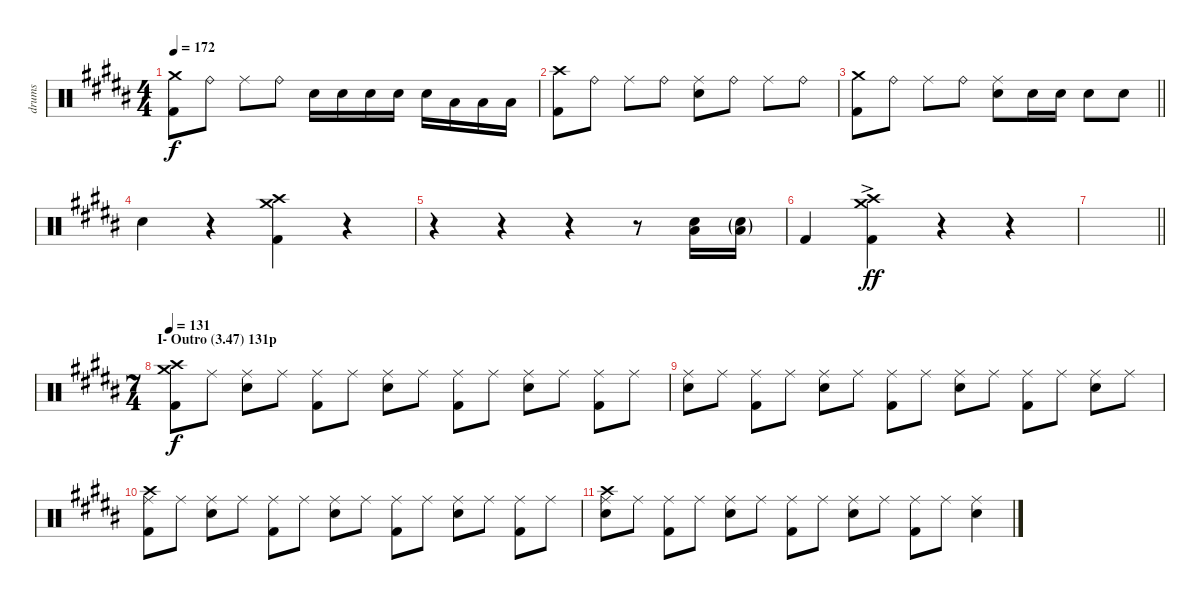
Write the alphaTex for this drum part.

\track ("drums" "drums") {instrument percussion}
\staff {score}
\articulation defaults
\ts (4 4)
\tempo 172
\clef neutral
\ks g#minor
("Crash medium (hit)" "Kick (hit) 2").8{dy f} "Ride (bell)".8 "Ride (middle)".8 "Ride (bell)".8 "Electric Snare (hit)".16 "Electric Snare (hit)".16 "Electric Snare (hit)".16 "Electric Snare (hit)".16 "Electric Snare (hit)".16 "Low Tom (hit)".16 "Low Tom (hit)".16 "Low Tom (hit)".16 |
\ks b
("Crash high (hit)" "Kick (hit) 2").8 "Ride (bell)".8 "Ride (middle)".8 "Ride (bell)".8 ("Ride (middle)" "Electric Snare (hit)").8 "Ride (bell)".8 "Ride (middle)".8 "Ride (bell)".8 |
\barLineRight lightlight
\ks g#minor
("Crash medium (hit)" "Kick (hit) 2").8 "Ride (bell)".8 "Ride (middle)".8 "Ride (bell)".8 ("Ride (middle)" "Electric Snare (hit)").8 "Electric Snare (hit)".16 "Electric Snare (hit)".16 "Electric Snare (hit)".8 "Electric Snare (hit)".8 |
\ks b "Electric Snare (hit)".4
r.4 ("Crash high (hit)" "Crash medium (hit)" "Kick (hit) 2").4 r.4 |
\ks g#minor
r.4 r.4 r.4 r.8 ("Low Tom (hit)" "Electric Snare (hit)").16 ("Low Tom (hit)"{g} "Electric Snare (hit)"{g}).16 |
"Kick (hit) 2".4 ("Crash high (hit)"{ac} "Crash medium (hit)"{ac} "Kick (hit) 2"{ac}).4{dy ff} r.4 r.4 |
\barLineRight lightlight
|
\ts (7 4)
\section ("" "I- Outro (3.47) 131p")
\tempo 131
\ks b
("Crash high (hit)" "Crash medium (hit)" "Kick (hit) 2").8{dy f} "Ride (middle)".8 ("Ride (middle)" "Electric Snare (hit)").8 "Ride (middle)".8 ("Ride (middle)" "Kick (hit) 2").8 "Ride (middle)".8 ("Ride (middle)" "Electric Snare (hit)").8 "Ride (middle)".8 ("Ride (middle)" "Kick (hit) 2").8 "Ride (middle)".8 ("Ride (middle)" "Electric Snare (hit)").8 "Ride (middle)".8 ("Ride (middle)" "Kick (hit) 2").8 "Ride (middle)".8 |
\ks g#minor
("Ride (middle)" "Electric Snare (hit)").8 "Ride (middle)".8 ("Ride (middle)" "Kick (hit) 2").8 "Ride (middle)".8 ("Ride (middle)" "Electric Snare (hit)").8 "Ride (middle)".8 ("Ride (middle)" "Kick (hit) 2").8 "Ride (middle)".8 ("Ride (middle)" "Electric Snare (hit)").8 "Ride (middle)".8 ("Ride (middle)" "Kick (hit) 2").8 "Ride (middle)".8 ("Ride (middle)" "Electric Snare (hit)").8 "Ride (middle)".8 |
("Crash high (hit)" "Ride (middle)" "Kick (hit) 2").8 "Ride (middle)".8 ("Ride (middle)" "Electric Snare (hit)").8 "Ride (middle)".8 ("Ride (middle)" "Kick (hit) 2").8 "Ride (middle)".8 ("Ride (middle)" "Electric Snare (hit)").8 "Ride (middle)".8 ("Ride (middle)" "Kick (hit) 2").8 "Ride (middle)".8 ("Ride (middle)" "Electric Snare (hit)").8 "Ride (middle)".8 ("Ride (middle)" "Kick (hit) 2").8 "Ride (middle)".8 |
("Crash high (hit)" "Ride (middle)" "Electric Snare (hit)").8 "Ride (middle)".8 ("Ride (middle)" "Kick (hit) 2").8 "Ride (middle)".8 ("Ride (middle)" "Electric Snare (hit)").8 "Ride (middle)".8 ("Ride (middle)" "Kick (hit) 2").8 "Ride (middle)".8 ("Ride (middle)" "Electric Snare (hit)").8 "Ride (middle)".8 ("Ride (middle)" "Kick (hit) 2").8 "Ride (middle)".8 ("Ride (middle)" "Electric Snare (hit)").4
